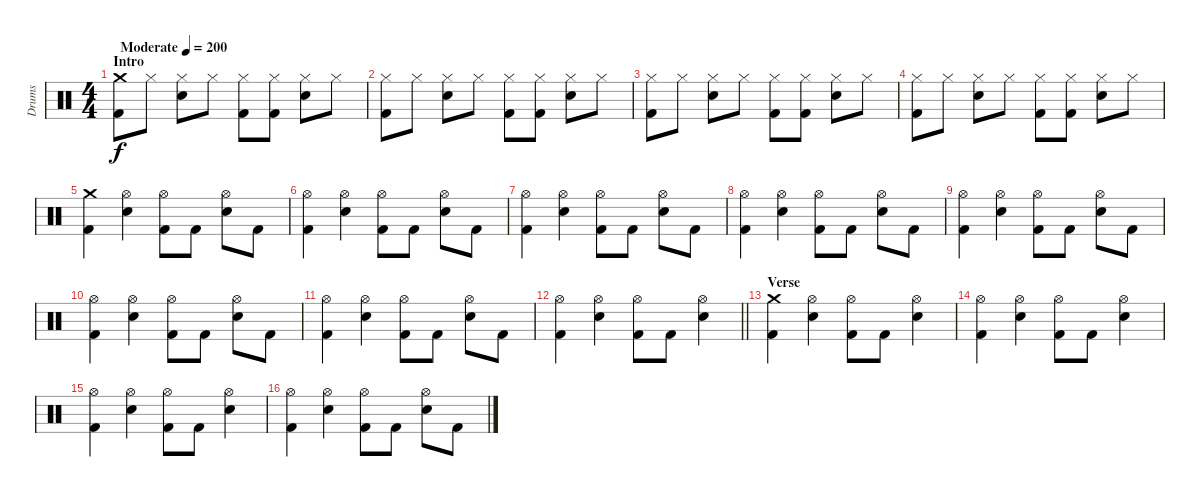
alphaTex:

\track ("Drums" "Drums") {instrument percussion}
\staff {score}
\articulation defaults
\ts (4 4)
\section ("" "Intro")
\tempo (200 "Moderate")
\clef neutral
\ks c
("Crash medium (hit)" "Kick (hit) 2").8{dy f} "Hi-Hat (closed)".8 ("Hi-Hat (closed)" "Electric Snare (hit)").8 "Hi-Hat (closed)".8 ("Hi-Hat (closed)" "Kick (hit) 2").8 ("Hi-Hat (closed)" "Kick (hit) 2").8 ("Hi-Hat (closed)" "Electric Snare (hit)").8 "Hi-Hat (closed)".8 |
("Hi-Hat (closed)" "Kick (hit) 2").8 "Hi-Hat (closed)".8 ("Hi-Hat (closed)" "Electric Snare (hit)").8 "Hi-Hat (closed)".8 ("Hi-Hat (closed)" "Kick (hit) 2").8 ("Hi-Hat (closed)" "Kick (hit) 2").8 ("Hi-Hat (closed)" "Electric Snare (hit)").8 "Hi-Hat (closed)".8 |
("Hi-Hat (closed)" "Kick (hit) 2").8 "Hi-Hat (closed)".8 ("Hi-Hat (closed)" "Electric Snare (hit)").8 "Hi-Hat (closed)".8 ("Hi-Hat (closed)" "Kick (hit) 2").8 ("Hi-Hat (closed)" "Kick (hit) 2").8 ("Hi-Hat (closed)" "Electric Snare (hit)").8 "Hi-Hat (closed)".8 |
("Hi-Hat (closed)" "Kick (hit) 2").8 "Hi-Hat (closed)".8 ("Hi-Hat (closed)" "Electric Snare (hit)").8 "Hi-Hat (closed)".8 ("Hi-Hat (closed)" "Kick (hit) 2").8 ("Hi-Hat (closed)" "Kick (hit) 2").8 ("Hi-Hat (closed)" "Electric Snare (hit)").8 "Hi-Hat (closed)".8 |
("Crash medium (hit)" "Kick (hit) 2").4 ("Hi-Hat (open)" "Electric Snare (hit)").4 ("Hi-Hat (open)" "Kick (hit) 2").8 "Kick (hit) 2".8 ("Hi-Hat (open)" "Electric Snare (hit)").8 "Kick (hit) 2".8 |
("Hi-Hat (open)" "Kick (hit) 2").4 ("Hi-Hat (open)" "Electric Snare (hit)").4 ("Hi-Hat (open)" "Kick (hit) 2").8 "Kick (hit) 2".8 ("Hi-Hat (open)" "Electric Snare (hit)").8 "Kick (hit) 2".8 |
("Hi-Hat (open)" "Kick (hit) 2").4 ("Hi-Hat (open)" "Electric Snare (hit)").4 ("Hi-Hat (open)" "Kick (hit) 2").8 "Kick (hit) 2".8 ("Hi-Hat (open)" "Electric Snare (hit)").8 "Kick (hit) 2".8 |
("Hi-Hat (open)" "Kick (hit) 2").4 ("Hi-Hat (open)" "Electric Snare (hit)").4 ("Hi-Hat (open)" "Kick (hit) 2").8 "Kick (hit) 2".8 ("Hi-Hat (open)" "Electric Snare (hit)").8 "Kick (hit) 2".8 |
("Hi-Hat (open)" "Kick (hit) 2").4 ("Hi-Hat (open)" "Electric Snare (hit)").4 ("Hi-Hat (open)" "Kick (hit) 2").8 "Kick (hit) 2".8 ("Hi-Hat (open)" "Electric Snare (hit)").8 "Kick (hit) 2".8 |
("Hi-Hat (open)" "Kick (hit) 2").4 ("Hi-Hat (open)" "Electric Snare (hit)").4 ("Hi-Hat (open)" "Kick (hit) 2").8 "Kick (hit) 2".8 ("Hi-Hat (open)" "Electric Snare (hit)").8 "Kick (hit) 2".8 |
("Hi-Hat (open)" "Kick (hit) 2").4 ("Hi-Hat (open)" "Electric Snare (hit)").4 ("Hi-Hat (open)" "Kick (hit) 2").8 "Kick (hit) 2".8 ("Hi-Hat (open)" "Electric Snare (hit)").8 "Kick (hit) 2".8 |
\barLineRight lightlight
("Hi-Hat (open)" "Kick (hit) 2").4 ("Hi-Hat (open)" "Electric Snare (hit)").4 ("Hi-Hat (open)" "Kick (hit) 2").8 "Kick (hit) 2".8 ("Hi-Hat (open)" "Electric Snare (hit)").4 |
\section ("" "Verse")
("Crash medium (hit)" "Kick (hit) 2").4 ("Hi-Hat (open)" "Electric Snare (hit)").4 ("Hi-Hat (open)" "Kick (hit) 2").8 "Kick (hit) 2".8 ("Hi-Hat (open)" "Electric Snare (hit)").4 |
("Hi-Hat (open)" "Kick (hit) 2").4 ("Hi-Hat (open)" "Electric Snare (hit)").4 ("Hi-Hat (open)" "Kick (hit) 2").8 "Kick (hit) 2".8 ("Hi-Hat (open)" "Electric Snare (hit)").4 |
("Hi-Hat (open)" "Kick (hit) 2").4 ("Hi-Hat (open)" "Electric Snare (hit)").4 ("Hi-Hat (open)" "Kick (hit) 2").8 "Kick (hit) 2".8 ("Hi-Hat (open)" "Electric Snare (hit)").4 |
("Hi-Hat (open)" "Kick (hit) 2").4 ("Hi-Hat (open)" "Electric Snare (hit)").4 ("Hi-Hat (open)" "Kick (hit) 2").8 "Kick (hit) 2".8 ("Hi-Hat (open)" "Electric Snare (hit)").8 "Kick (hit) 2".8
